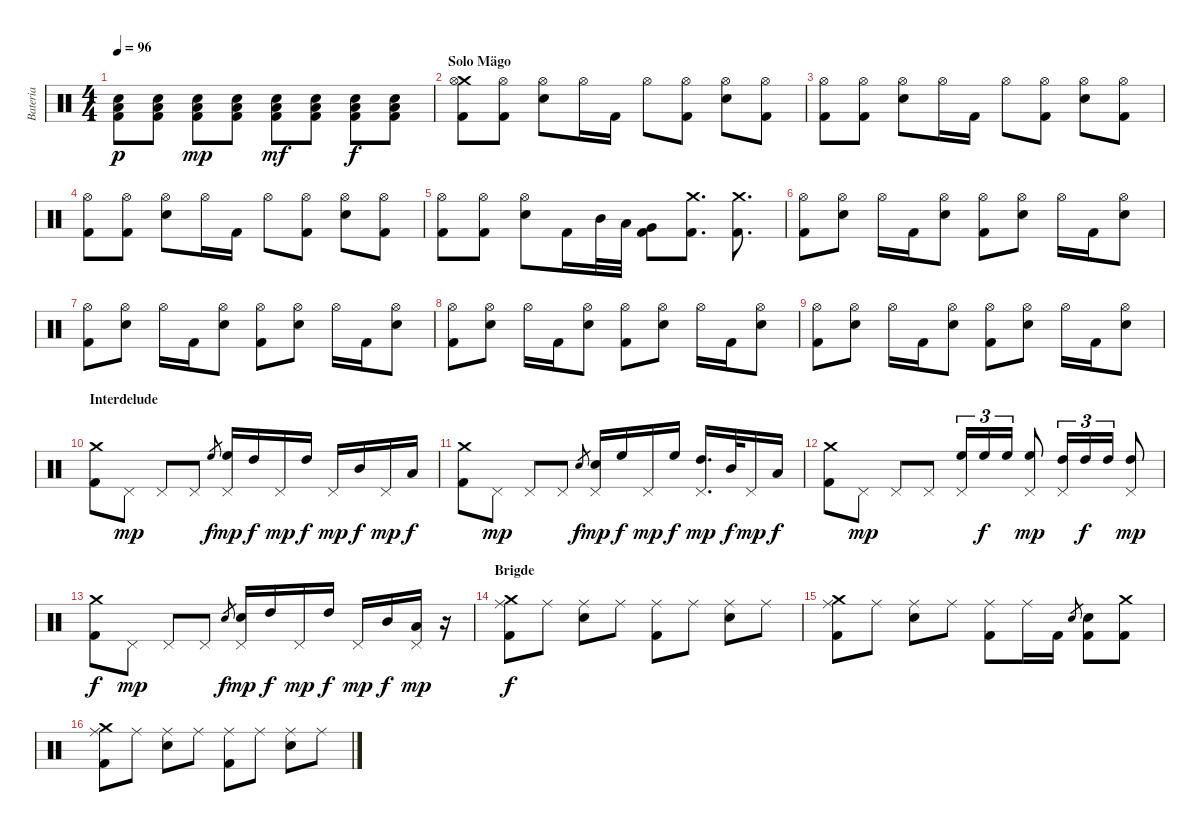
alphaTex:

\track ("Bateria" "Bateria") {instrument percussion}
\staff {score}
\articulation defaults
\ts (4 4)
\tempo 96
\clef neutral
\ks c
("Snare (hit) 2" "Kick (hit) 2" "Low Floor Tom (hit)").8{dy p} ("Snare (hit) 2" "Kick (hit) 2" "Low Floor Tom (hit)").8 ("Snare (hit) 2" "Kick (hit) 2" "Low Floor Tom (hit)").8{dy mp} ("Snare (hit) 2" "Kick (hit) 2" "Low Floor Tom (hit)").8 ("Snare (hit) 2" "Kick (hit) 2" "Low Floor Tom (hit)").8{dy mf} ("Snare (hit) 2" "Kick (hit) 2" "Low Floor Tom (hit)").8 ("Snare (hit) 2" "Kick (hit) 2" "Low Floor Tom (hit)").8{dy f} ("Snare (hit) 2" "Kick (hit) 2" "Low Floor Tom (hit)").8 |
\section ("" "Solo Mägo")
("Crash medium (hit)" "Kick (hit) 2" "Hi-Hat (open)").8 ("Kick (hit) 2" "Hi-Hat (open)").8 ("Hi-Hat (open)" "Snare (hit) 2").8 "Hi-Hat (open)".16 "Kick (hit) 2".16 "Hi-Hat (open)".8 ("Kick (hit) 2" "Hi-Hat (open)").8 ("Hi-Hat (open)" "Snare (hit) 2").8 ("Hi-Hat (open)" "Kick (hit) 2").8 |
("Kick (hit) 2" "Hi-Hat (open)").8 ("Kick (hit) 2" "Hi-Hat (open)").8 ("Hi-Hat (open)" "Snare (hit) 2").8 "Hi-Hat (open)".16 "Kick (hit) 2".16 "Hi-Hat (open)".8 ("Kick (hit) 2" "Hi-Hat (open)").8 ("Hi-Hat (open)" "Snare (hit) 2").8 ("Hi-Hat (open)" "Kick (hit) 2").8 |
("Kick (hit) 2" "Hi-Hat (open)").8 ("Kick (hit) 2" "Hi-Hat (open)").8 ("Hi-Hat (open)" "Snare (hit) 2").8 "Hi-Hat (open)".16 "Kick (hit) 2".16 "Hi-Hat (open)".8 ("Kick (hit) 2" "Hi-Hat (open)").8 ("Hi-Hat (open)" "Snare (hit) 2").8 ("Hi-Hat (open)" "Kick (hit) 2").8 |
("Kick (hit) 2" "Hi-Hat (open)").8 ("Kick (hit) 2" "Hi-Hat (open)").8 ("Hi-Hat (open)" "Snare (hit) 2").8 "Kick (hit) 2".16 "Mid Tom (hit)".32 "Low Tom (hit)".32 ("Kick (hit) 2" "Very Low Tom (hit)").8 ("Kick (hit) 2" "Crash medium (hit)").8{d} ("Kick (hit) 2" "Crash medium (hit)").8{d} |
("Kick (hit) 2" "Hi-Hat (open)").8 ("Hi-Hat (open)" "Snare (hit) 2").8 "Hi-Hat (open)".16 "Kick (hit) 2".16 ("Hi-Hat (open)" "Snare (hit) 2").8 ("Kick (hit) 2" "Hi-Hat (open)").8 ("Hi-Hat (open)" "Snare (hit) 2").8 "Hi-Hat (open)".16 "Kick (hit) 2".16 ("Hi-Hat (open)" "Snare (hit) 2").8 |
("Kick (hit) 2" "Hi-Hat (open)").8 ("Hi-Hat (open)" "Snare (hit) 2").8 "Hi-Hat (open)".16 "Kick (hit) 2".16 ("Hi-Hat (open)" "Snare (hit) 2").8 ("Kick (hit) 2" "Hi-Hat (open)").8 ("Hi-Hat (open)" "Snare (hit) 2").8 "Hi-Hat (open)".16 "Kick (hit) 2".16 ("Hi-Hat (open)" "Snare (hit) 2").8 |
("Kick (hit) 2" "Hi-Hat (open)").8 ("Hi-Hat (open)" "Snare (hit) 2").8 "Hi-Hat (open)".16 "Kick (hit) 2".16 ("Hi-Hat (open)" "Snare (hit) 2").8 ("Kick (hit) 2" "Hi-Hat (open)").8 ("Hi-Hat (open)" "Snare (hit) 2").8 "Hi-Hat (open)".16 "Kick (hit) 2".16 ("Hi-Hat (open)" "Snare (hit) 2").8 |
("Kick (hit) 2" "Hi-Hat (open)").8 ("Hi-Hat (open)" "Snare (hit) 2").8 "Hi-Hat (open)".16 "Kick (hit) 2".16 ("Hi-Hat (open)" "Snare (hit) 2").8 ("Kick (hit) 2" "Hi-Hat (open)").8 ("Hi-Hat (open)" "Snare (hit) 2").8 "Hi-Hat (open)".16 "Kick (hit) 2".16 ("Hi-Hat (open)" "Snare (hit) 2").8 |
\section ("" "Interdelude")
("Kick (hit) 2" "Crash medium (hit)").8 "Pedal Hi-Hat (hit)".8{dy mp} "Pedal Hi-Hat (hit)".8 "Pedal Hi-Hat (hit)".8 "High Floor Tom (hit)".8{gr dy f} ("Pedal Hi-Hat (hit)" "High Floor Tom (hit)").16{dy mp} "High Tom (hit)".16{dy f} "Pedal Hi-Hat (hit)".16{dy mp} "High Tom (hit)".16{dy f} "Pedal Hi-Hat (hit)".16{dy mp} "Mid Tom (hit)".16{dy f} "Pedal Hi-Hat (hit)".16{dy mp} "Low Tom (hit)".16{dy f} |
("Kick (hit) 2" "Crash medium (hit)").8 "Pedal Hi-Hat (hit)".8{dy mp} "Pedal Hi-Hat (hit)".8 "Pedal Hi-Hat (hit)".8 "Snare (hit) 2".8{gr dy f} ("Pedal Hi-Hat (hit)" "Snare (hit) 2").16{dy mp} "High Floor Tom (hit)".16{dy f} "Pedal Hi-Hat (hit)".16{dy mp} "High Floor Tom (hit)".16{dy f} ("Pedal Hi-Hat (hit)" "High Tom (hit)").16{d dy mp} "Mid Tom (hit)".32{dy f} "Pedal Hi-Hat (hit)".16{dy mp} "Low Tom (hit)".16{dy f} |
("Crash medium (hit)" "Kick (hit) 2").8 "Pedal Hi-Hat (hit)".8{dy mp} "Pedal Hi-Hat (hit)".8 "Pedal Hi-Hat (hit)".8 ("Pedal Hi-Hat (hit)" "High Floor Tom (hit)").16{tu (3 2)} "High Floor Tom (hit)".16{tu (3 2) dy f} "High Floor Tom (hit)".16{tu (3 2)} ("Pedal Hi-Hat (hit)" "High Floor Tom (hit)").8{dy mp} ("Pedal Hi-Hat (hit)" "High Tom (hit)").16{tu (3 2)} "High Tom (hit)".16{tu (3 2) dy f} "High Tom (hit)".16{tu (3 2)} ("Pedal Hi-Hat (hit)" "High Tom (hit)").8{dy mp} |
("Kick (hit) 2" "Crash medium (hit)").8{dy f} "Pedal Hi-Hat (hit)".8{dy mp} "Pedal Hi-Hat (hit)".8 "Pedal Hi-Hat (hit)".8 "Snare (hit) 2".8{gr dy f} ("Pedal Hi-Hat (hit)" "Snare (hit) 2").16{dy mp} "High Tom (hit)".16{dy f} "Pedal Hi-Hat (hit)".16{dy mp} "High Tom (hit)".16{dy f} "Pedal Hi-Hat (hit)".16{dy mp} "Mid Tom (hit)".16{dy f} ("Pedal Hi-Hat (hit)" "Low Tom (hit)").16{dy mp} r.16 |
\section ("" "Brigde")
("Crash medium (hit)" "Kick (hit) 2" "Ride (middle)").8{dy f} "Ride (middle)".8 ("Ride (middle)" "Snare (hit) 2").8 "Ride (middle)".8 ("Ride (middle)" "Kick (hit) 2").8 "Ride (middle)".8 ("Ride (middle)" "Snare (hit) 2").8 "Ride (middle)".8 |
("Ride (middle)" "Kick (hit) 2" "Crash medium (hit)").8 "Ride (middle)".8 ("Ride (middle)" "Snare (hit) 2").8 "Ride (middle)".8 ("Ride (middle)" "Kick (hit) 2").8 "Ride (middle)".16 "Kick (hit) 2".16 "Snare (hit) 2".8{gr} ("Kick (hit) 2" "Snare (hit) 2").8 ("Kick (hit) 2" "Crash medium (hit)").8 |
("Crash medium (hit)" "Kick (hit) 2" "Ride (middle)").8 "Ride (middle)".8 ("Ride (middle)" "Snare (hit) 2").8 "Ride (middle)".8 ("Ride (middle)" "Kick (hit) 2").8 "Ride (middle)".8 ("Ride (middle)" "Snare (hit) 2").8 "Ride (middle)".8
